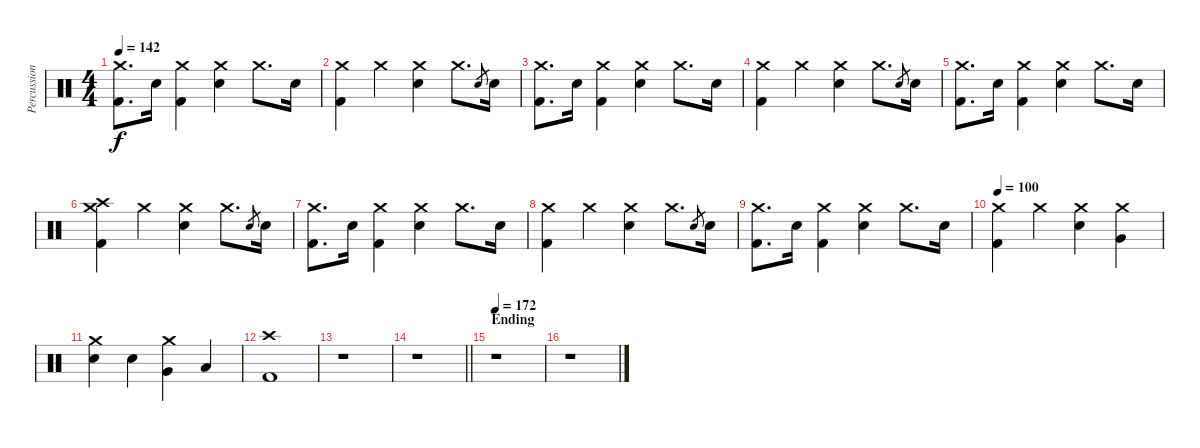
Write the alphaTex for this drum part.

\track ("Percussions" "Percussion") {instrument percussion}
\staff {score}
\articulation defaults
\ts (4 4)
\tempo 142
\clef neutral
\ks c
("Crash medium (hit)" "Kick (hit) 2").8{d dy f} "Electric Snare (hit)".16 ("Crash medium (hit)" "Kick (hit) 2").4 ("Crash medium (hit)" "Electric Snare (hit)").4 "Crash medium (hit)".8{d} "Electric Snare (hit)".16 |
("Crash medium (hit)" "Kick (hit) 2").4 "Crash medium (hit)".4 ("Crash medium (hit)" "Electric Snare (hit)").4 "Crash medium (hit)".8{d} "Electric Snare (hit)".8{gr} "Electric Snare (hit)".16 |
("Crash medium (hit)" "Kick (hit) 2").8{d} "Electric Snare (hit)".16 ("Crash medium (hit)" "Kick (hit) 2").4 ("Crash medium (hit)" "Electric Snare (hit)").4 "Crash medium (hit)".8{d} "Electric Snare (hit)".16 |
("Crash medium (hit)" "Kick (hit) 2").4 "Crash medium (hit)".4 ("Crash medium (hit)" "Electric Snare (hit)").4 "Crash medium (hit)".8{d} "Electric Snare (hit)".8{gr} "Electric Snare (hit)".16 |
("Crash medium (hit)" "Kick (hit) 2").8{d} "Electric Snare (hit)".16 ("Crash medium (hit)" "Kick (hit) 2").4 ("Crash medium (hit)" "Electric Snare (hit)").4 "Crash medium (hit)".8{d} "Electric Snare (hit)".16 |
("Crash medium (hit)" "Crash high (hit)" "Kick (hit) 2").4 "Crash medium (hit)".4 ("Crash medium (hit)" "Electric Snare (hit)").4 "Crash medium (hit)".8{d} "Electric Snare (hit)".8{gr} "Electric Snare (hit)".16 |
("Crash medium (hit)" "Kick (hit) 2").8{d} "Electric Snare (hit)".16 ("Crash medium (hit)" "Kick (hit) 2").4 ("Crash medium (hit)" "Electric Snare (hit)").4 "Crash medium (hit)".8{d} "Electric Snare (hit)".16 |
("Crash medium (hit)" "Kick (hit) 2").4 "Crash medium (hit)".4 ("Crash medium (hit)" "Electric Snare (hit)").4 "Crash medium (hit)".8{d} "Electric Snare (hit)".8{gr} "Electric Snare (hit)".16 |
("Crash medium (hit)" "Kick (hit) 2").8{d} "Electric Snare (hit)".16 ("Crash medium (hit)" "Kick (hit) 2").4 ("Crash medium (hit)" "Electric Snare (hit)").4 "Crash medium (hit)".8{d} "Electric Snare (hit)".16 |
\tempo 100
("Crash medium (hit)" "Kick (hit) 2").4 "Crash medium (hit)".4 ("Crash medium (hit)" "Electric Snare (hit)").4 ("Crash medium (hit)" "Very Low Tom (hit)").4 |
("Crash medium (hit)" "Electric Snare (hit)").4 "Electric Snare (hit)".4 ("Crash medium (hit)" "Very Low Tom (hit)").4 "Low Floor Tom (hit)".4 |
("Crash high (hit)" "Kick (hit) 2").1 |
r.1 |
\barLineRight lightlight
r.1 |
\section ("" "Ending")
\tempo 172
r.1 |
r.1
